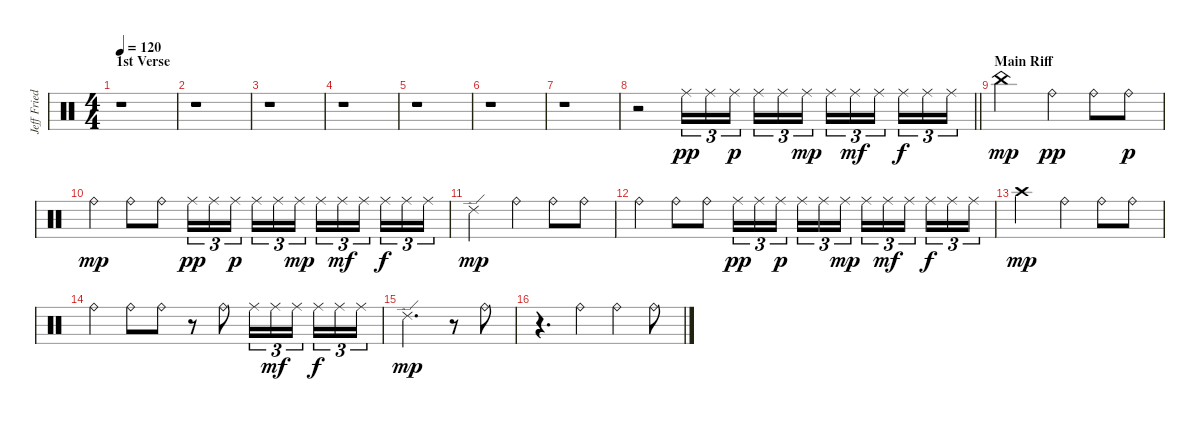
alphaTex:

\track ("Jeff Friedl" "Jeff Fried") {instrument percussion}
\staff {score}
\articulation defaults
\ts (4 4)
\section ("" "1st Verse")
\tempo 120
\clef neutral
\ks c
r.1{dy pp} |
r.1 |
r.1 |
r.1 |
r.1 |
r.1 |
r.1 |
\barLineRight lightlight
r.2 "Ride (middle)".16{tu (3 2)} "Ride (middle)".16{tu (3 2)} "Ride (middle)".16{tu (3 2) dy p beam splitsecondary} "Ride (middle)".16{tu (3 2)} "Ride (middle)".16{tu (3 2)} "Ride (middle)".16{tu (3 2) dy mp} "Ride (middle)".16{tu (3 2)} "Ride (middle)".16{tu (3 2) dy mf} "Ride (middle)".16{tu (3 2) beam splitsecondary} "Ride (middle)".16{tu (3 2) dy f} "Ride (middle)".16{tu (3 2)} "Ride (middle)".16{tu (3 2)} |
\section ("" "Main Riff")
"China (hit)".2{dy mp} "Ride (bell)".4{dy pp} "Ride (bell)".8 "Ride (bell)".8{dy p} |
"Ride (bell)".4{dy mp} "Ride (bell)".8 "Ride (bell)".8 "Ride (middle)".16{tu (3 2) dy pp} "Ride (middle)".16{tu (3 2)} "Ride (middle)".16{tu (3 2) dy p beam splitsecondary} "Ride (middle)".16{tu (3 2)} "Ride (middle)".16{tu (3 2)} "Ride (middle)".16{tu (3 2) dy mp} "Ride (middle)".16{tu (3 2)} "Ride (middle)".16{tu (3 2) dy mf} "Ride (middle)".16{tu (3 2) beam splitsecondary} "Ride (middle)".16{tu (3 2) dy f} "Ride (middle)".16{tu (3 2)} "Ride (middle)".16{tu (3 2)} |
"Ride (edge) 2".2{dy mp} "Ride (bell)".4 "Ride (bell)".8 "Ride (bell)".8 |
"Ride (bell)".4 "Ride (bell)".8 "Ride (bell)".8 "Ride (middle)".16{tu (3 2) dy pp} "Ride (middle)".16{tu (3 2)} "Ride (middle)".16{tu (3 2) dy p beam splitsecondary} "Ride (middle)".16{tu (3 2)} "Ride (middle)".16{tu (3 2)} "Ride (middle)".16{tu (3 2) dy mp} "Ride (middle)".16{tu (3 2)} "Ride (middle)".16{tu (3 2) dy mf} "Ride (middle)".16{tu (3 2) beam splitsecondary} "Ride (middle)".16{tu (3 2) dy f} "Ride (middle)".16{tu (3 2)} "Ride (middle)".16{tu (3 2)} |
"Crash high (hit)".2{dy mp} "Ride (bell)".4 "Ride (bell)".8 "Ride (bell)".8 |
"Ride (bell)".4 "Ride (bell)".8 "Ride (bell)".8 r.8 "Ride (bell)".8 "Ride (middle)".16{tu (3 2)} "Ride (middle)".16{tu (3 2) dy mf} "Ride (middle)".16{tu (3 2) beam splitsecondary} "Ride (middle)".16{tu (3 2) dy f} "Ride (middle)".16{tu (3 2)} "Ride (middle)".16{tu (3 2)} |
"Ride (edge) 2".2{d dy mp} r.8 "Ride (bell)".8 |
r.4{d} "Ride (bell)".4 "Ride (bell)".4 "Ride (bell)".8
